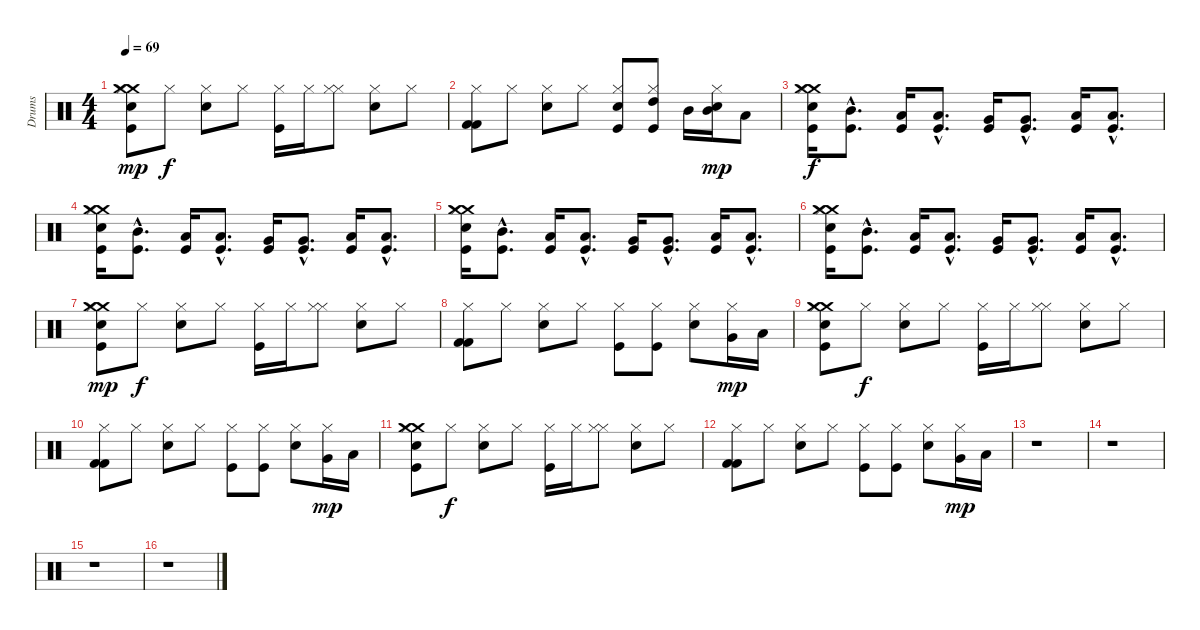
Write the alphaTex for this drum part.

\track ("Drums" "Drums") {instrument percussion}
\staff {score}
\articulation defaults
\ts (4 4)
\tempo 69
\clef neutral
\ks c
("Kick (hit)" "Crash medium (hit)" "Electric Snare (hit)" "Crash medium (hit)" "Hi-Hat (closed)").8{dy mp} "Hi-Hat (closed)".8{dy f} ("Snare (hit) 2" "Hi-Hat (closed)").8 "Hi-Hat (closed)".8 ("Kick (hit)" "Hi-Hat (closed)").16 "Hi-Hat (closed)".16 ("Hi-Hat (closed)" "Hi-Hat (closed)").8 ("Snare (hit) 2" "Hi-Hat (closed)").8 "Hi-Hat (closed)".8 |
("Hi-Hat (closed)" "Kick (hit) 2" "Kick (hit) 2").8 "Hi-Hat (closed)".8 ("Snare (hit) 2" "Hi-Hat (closed)").8 "Hi-Hat (closed)".8 ("Kick (hit)" "Hi-Hat (closed)" "Snare (hit) 2").8 ("Kick (hit)" "Hi-Hat (closed)" "High Tom (hit)").8 "Mid Tom (hit)".16 ("Mid Tom (hit)" "Hi-Hat (closed)" "Snare (hit) 2").16{dy mp} "Low Tom (hit)".8 |
("Kick (hit)" "Crash medium (hit)" "Electric Snare (hit)" "Crash medium (hit)" "Hi-Hat (closed)").16{dy f} ("Mid Tom (hit)"{hac} "Kick (hit)"{hac}).8{d} ("Low Tom (hit)" "Kick (hit)").16 ("Low Tom (hit)"{hac} "Kick (hit)"{hac}).8{d} ("Very Low Tom (hit)" "Kick (hit)").16 ("Very Low Tom (hit)"{hac} "Kick (hit)"{hac}).8{d} ("Low Floor Tom (hit)" "Kick (hit)").16 ("Low Floor Tom (hit)"{hac} "Kick (hit)"{hac}).8{d} |
("Kick (hit)" "Crash medium (hit)" "Electric Snare (hit)" "Crash medium (hit)" "Hi-Hat (closed)").16 ("Mid Tom (hit)"{hac} "Kick (hit)"{hac}).8{d} ("Low Tom (hit)" "Kick (hit)").16 ("Low Tom (hit)"{hac} "Kick (hit)"{hac}).8{d} ("Very Low Tom (hit)" "Kick (hit)").16 ("Very Low Tom (hit)"{hac} "Kick (hit)"{hac}).8{d} ("Low Floor Tom (hit)" "Kick (hit)").16 ("Low Floor Tom (hit)"{hac} "Kick (hit)"{hac}).8{d} |
("Kick (hit)" "Crash medium (hit)" "Electric Snare (hit)" "Crash medium (hit)" "Hi-Hat (closed)").16 ("Mid Tom (hit)"{hac} "Kick (hit)"{hac}).8{d} ("Low Tom (hit)" "Kick (hit)").16 ("Low Tom (hit)"{hac} "Kick (hit)"{hac}).8{d} ("Very Low Tom (hit)" "Kick (hit)").16 ("Very Low Tom (hit)"{hac} "Kick (hit)"{hac}).8{d} ("Low Floor Tom (hit)" "Kick (hit)").16 ("Low Floor Tom (hit)"{hac} "Kick (hit)"{hac}).8{d} |
("Kick (hit)" "Crash medium (hit)" "Electric Snare (hit)" "Crash medium (hit)" "Hi-Hat (closed)").16 ("Mid Tom (hit)"{hac} "Kick (hit)"{hac}).8{d} ("Low Tom (hit)" "Kick (hit)").16 ("Low Tom (hit)"{hac} "Kick (hit)"{hac}).8{d} ("Very Low Tom (hit)" "Kick (hit)").16 ("Very Low Tom (hit)"{hac} "Kick (hit)"{hac}).8{d} ("Low Floor Tom (hit)" "Kick (hit)").16 ("Low Floor Tom (hit)"{hac} "Kick (hit)"{hac}).8{d} |
("Kick (hit)" "Crash medium (hit)" "Electric Snare (hit)" "Crash medium (hit)" "Hi-Hat (closed)").8{dy mp} "Hi-Hat (closed)".8{dy f} ("Snare (hit) 2" "Hi-Hat (closed)").8 "Hi-Hat (closed)".8 ("Kick (hit)" "Hi-Hat (closed)").16 "Hi-Hat (closed)".16 ("Hi-Hat (closed)" "Hi-Hat (closed)").8 ("Snare (hit) 2" "Hi-Hat (closed)").8 "Hi-Hat (closed)".8 |
("Hi-Hat (closed)" "Kick (hit) 2" "Kick (hit) 2").8 "Hi-Hat (closed)".8 ("Snare (hit) 2" "Hi-Hat (closed)").8 "Hi-Hat (closed)".8 ("Kick (hit)" "Hi-Hat (closed)").8 ("Kick (hit)" "Hi-Hat (closed)").8 ("Snare (hit) 2" "Hi-Hat (closed)").8 ("Very Low Tom (hit)" "Hi-Hat (closed)").16{dy mp} "Low Floor Tom (hit)".16 |
("Kick (hit)" "Crash medium (hit)" "Electric Snare (hit)" "Crash medium (hit)" "Hi-Hat (closed)").8 "Hi-Hat (closed)".8{dy f} ("Snare (hit) 2" "Hi-Hat (closed)").8 "Hi-Hat (closed)".8 ("Kick (hit)" "Hi-Hat (closed)").16 "Hi-Hat (closed)".16 ("Hi-Hat (closed)" "Hi-Hat (closed)").8 ("Snare (hit) 2" "Hi-Hat (closed)").8 "Hi-Hat (closed)".8 |
("Hi-Hat (closed)" "Kick (hit) 2" "Kick (hit) 2").8 "Hi-Hat (closed)".8 ("Snare (hit) 2" "Hi-Hat (closed)").8 "Hi-Hat (closed)".8 ("Kick (hit)" "Hi-Hat (closed)").8 ("Kick (hit)" "Hi-Hat (closed)").8 ("Snare (hit) 2" "Hi-Hat (closed)").8 ("Very Low Tom (hit)" "Hi-Hat (closed)").16{dy mp} "Low Floor Tom (hit)".16 |
("Kick (hit)" "Crash medium (hit)" "Electric Snare (hit)" "Crash medium (hit)" "Hi-Hat (closed)").8 "Hi-Hat (closed)".8{dy f} ("Snare (hit) 2" "Hi-Hat (closed)").8 "Hi-Hat (closed)".8 ("Kick (hit)" "Hi-Hat (closed)").16 "Hi-Hat (closed)".16 ("Hi-Hat (closed)" "Hi-Hat (closed)").8 ("Snare (hit) 2" "Hi-Hat (closed)").8 "Hi-Hat (closed)".8 |
("Hi-Hat (closed)" "Kick (hit) 2" "Kick (hit) 2").8 "Hi-Hat (closed)".8 ("Snare (hit) 2" "Hi-Hat (closed)").8 "Hi-Hat (closed)".8 ("Kick (hit)" "Hi-Hat (closed)").8 ("Kick (hit)" "Hi-Hat (closed)").8 ("Snare (hit) 2" "Hi-Hat (closed)").8 ("Very Low Tom (hit)" "Hi-Hat (closed)").16{dy mp} "Low Floor Tom (hit)".16 |
r.1 |
r.1 |
r.1 |
r.1
